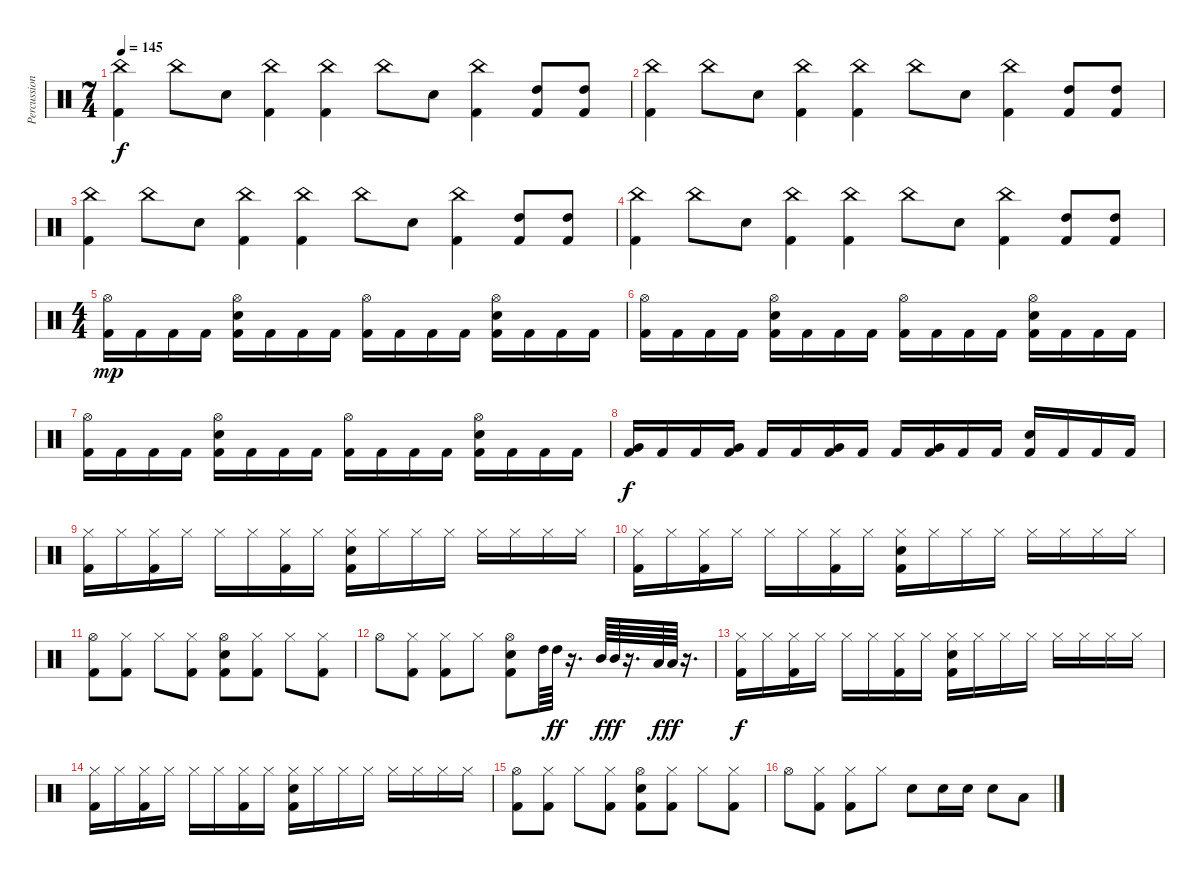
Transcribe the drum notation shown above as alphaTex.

\track ("Percussion" "Percussion") {instrument percussion}
\staff {score}
\articulation defaults
\ts (7 4)
\tempo 145
\clef neutral
\ks c
("China (hit)" "Kick (hit) 2").4{dy f} "China (hit)".8 "Electric Snare (hit)".8 ("China (hit)" "Kick (hit) 2").4 ("China (hit)" "Kick (hit) 2").4 "China (hit)".8 "Electric Snare (hit)".8 ("China (hit)" "Kick (hit) 2").4 ("High Tom (hit)" "Kick (hit) 2").8 ("High Tom (hit)" "Kick (hit) 2").8 |
("China (hit)" "Kick (hit) 2").4 "China (hit)".8 "Electric Snare (hit)".8 ("China (hit)" "Kick (hit) 2").4 ("China (hit)" "Kick (hit) 2").4 "China (hit)".8 "Electric Snare (hit)".8 ("China (hit)" "Kick (hit) 2").4 ("High Tom (hit)" "Kick (hit) 2").8 ("High Tom (hit)" "Kick (hit) 2").8 |
("China (hit)" "Kick (hit) 2").4 "China (hit)".8 "Electric Snare (hit)".8 ("China (hit)" "Kick (hit) 2").4 ("China (hit)" "Kick (hit) 2").4 "China (hit)".8 "Electric Snare (hit)".8 ("China (hit)" "Kick (hit) 2").4 ("High Tom (hit)" "Kick (hit) 2").8 ("High Tom (hit)" "Kick (hit) 2").8 |
("China (hit)" "Kick (hit) 2").4 "China (hit)".8 "Electric Snare (hit)".8 ("China (hit)" "Kick (hit) 2").4 ("China (hit)" "Kick (hit) 2").4 "China (hit)".8 "Electric Snare (hit)".8 ("China (hit)" "Kick (hit) 2").4 ("High Tom (hit)" "Kick (hit) 2").8 ("High Tom (hit)" "Kick (hit) 2").8 |
\ts (4 4)
("Hi-Hat (open)" "Kick (hit) 2").16{dy mp} "Kick (hit) 2".16 "Kick (hit) 2".16 "Kick (hit) 2".16 ("Hi-Hat (open)" "Electric Snare (hit)" "Kick (hit) 2").16 "Kick (hit) 2".16 "Kick (hit) 2".16 "Kick (hit) 2".16 ("Hi-Hat (open)" "Kick (hit) 2").16 "Kick (hit) 2".16 "Kick (hit) 2".16 "Kick (hit) 2".16 ("Hi-Hat (open)" "Electric Snare (hit)" "Kick (hit) 2").16 "Kick (hit) 2".16 "Kick (hit) 2".16 "Kick (hit) 2".16 |
("Hi-Hat (open)" "Kick (hit) 2").16 "Kick (hit) 2".16 "Kick (hit) 2".16 "Kick (hit) 2".16 ("Hi-Hat (open)" "Electric Snare (hit)" "Kick (hit) 2").16 "Kick (hit) 2".16 "Kick (hit) 2".16 "Kick (hit) 2".16 ("Hi-Hat (open)" "Kick (hit) 2").16 "Kick (hit) 2".16 "Kick (hit) 2".16 "Kick (hit) 2".16 ("Hi-Hat (open)" "Electric Snare (hit)" "Kick (hit) 2").16 "Kick (hit) 2".16 "Kick (hit) 2".16 "Kick (hit) 2".16 |
("Hi-Hat (open)" "Kick (hit) 2").16 "Kick (hit) 2".16 "Kick (hit) 2".16 "Kick (hit) 2".16 ("Hi-Hat (open)" "Electric Snare (hit)" "Kick (hit) 2").16 "Kick (hit) 2".16 "Kick (hit) 2".16 "Kick (hit) 2".16 ("Hi-Hat (open)" "Kick (hit) 2").16 "Kick (hit) 2".16 "Kick (hit) 2".16 "Kick (hit) 2".16 ("Hi-Hat (open)" "Electric Snare (hit)" "Kick (hit) 2").16 "Kick (hit) 2".16 "Kick (hit) 2".16 "Kick (hit) 2".16 |
("Very Low Tom (hit)" "Kick (hit) 2").16{dy f} "Kick (hit) 2".16 "Kick (hit) 2".16 ("Very Low Tom (hit)" "Kick (hit) 2").16 "Kick (hit) 2".16 "Kick (hit) 2".16 ("Very Low Tom (hit)" "Kick (hit) 2").16 "Kick (hit) 2".16 "Kick (hit) 2".16 ("Very Low Tom (hit)" "Kick (hit) 2").16 "Kick (hit) 2".16 "Kick (hit) 2".16 ("Electric Snare (hit)" "Kick (hit) 2").16 "Kick (hit) 2".16 "Kick (hit) 2".16 "Kick (hit) 2".16 |
("Hi-Hat (closed)" "Kick (hit) 2").16 "Hi-Hat (closed)".16 ("Hi-Hat (closed)" "Kick (hit) 2").16 "Hi-Hat (closed)".16 "Hi-Hat (closed)".16 "Hi-Hat (closed)".16 ("Hi-Hat (closed)" "Kick (hit) 2").16 "Hi-Hat (closed)".16 ("Hi-Hat (closed)" "Electric Snare (hit)" "Kick (hit) 2").16 "Hi-Hat (closed)".16 "Hi-Hat (closed)".16 "Hi-Hat (closed)".16 "Hi-Hat (closed)".16 "Hi-Hat (closed)".16 "Hi-Hat (closed)".16 "Hi-Hat (closed)".16 |
("Hi-Hat (closed)" "Kick (hit) 2").16 "Hi-Hat (closed)".16 ("Hi-Hat (closed)" "Kick (hit) 2").16 "Hi-Hat (closed)".16 "Hi-Hat (closed)".16 "Hi-Hat (closed)".16 ("Hi-Hat (closed)" "Kick (hit) 2").16 "Hi-Hat (closed)".16 ("Hi-Hat (closed)" "Electric Snare (hit)" "Kick (hit) 2").16 "Hi-Hat (closed)".16 "Hi-Hat (closed)".16 "Hi-Hat (closed)".16 "Hi-Hat (closed)".16 "Hi-Hat (closed)".16 "Hi-Hat (closed)".16 "Hi-Hat (closed)".16 |
("Hi-Hat (open)" "Kick (hit) 2").8 ("Hi-Hat (closed)" "Kick (hit) 2").8 "Hi-Hat (closed)".8 ("Hi-Hat (closed)" "Kick (hit) 2").8 ("Hi-Hat (open)" "Electric Snare (hit)" "Kick (hit) 2").8 ("Hi-Hat (closed)" "Kick (hit) 2").8 "Hi-Hat (closed)".8 ("Hi-Hat (closed)" "Kick (hit) 2").8 |
"Hi-Hat (open)".8 ("Hi-Hat (closed)" "Kick (hit) 2").8 ("Hi-Hat (closed)" "Kick (hit) 2").8 "Hi-Hat (closed)".8 ("Hi-Hat (open)" "Electric Snare (hit)" "Kick (hit) 2").8 "High Tom (hit)".64 "High Tom (hit)".64{dy ff} r.16{d} "Mid Tom (hit)".64{dy f} "Mid Tom (hit)".64{dy ff} r.16{d} "Low Tom (hit)".64{dy f} "Low Tom (hit)".64{dy ff} r.16{d} |
("Hi-Hat (closed)" "Kick (hit) 2").16{dy f} "Hi-Hat (closed)".16 ("Hi-Hat (closed)" "Kick (hit) 2").16 "Hi-Hat (closed)".16 "Hi-Hat (closed)".16 "Hi-Hat (closed)".16 ("Hi-Hat (closed)" "Kick (hit) 2").16 "Hi-Hat (closed)".16 ("Hi-Hat (closed)" "Electric Snare (hit)" "Kick (hit) 2").16 "Hi-Hat (closed)".16 "Hi-Hat (closed)".16 "Hi-Hat (closed)".16 "Hi-Hat (closed)".16 "Hi-Hat (closed)".16 "Hi-Hat (closed)".16 "Hi-Hat (closed)".16 |
("Hi-Hat (closed)" "Kick (hit) 2").16 "Hi-Hat (closed)".16 ("Hi-Hat (closed)" "Kick (hit) 2").16 "Hi-Hat (closed)".16 "Hi-Hat (closed)".16 "Hi-Hat (closed)".16 ("Hi-Hat (closed)" "Kick (hit) 2").16 "Hi-Hat (closed)".16 ("Hi-Hat (closed)" "Electric Snare (hit)" "Kick (hit) 2").16 "Hi-Hat (closed)".16 "Hi-Hat (closed)".16 "Hi-Hat (closed)".16 "Hi-Hat (closed)".16 "Hi-Hat (closed)".16 "Hi-Hat (closed)".16 "Hi-Hat (closed)".16 |
("Hi-Hat (open)" "Kick (hit) 2").8 ("Hi-Hat (closed)" "Kick (hit) 2").8 "Hi-Hat (closed)".8 ("Hi-Hat (closed)" "Kick (hit) 2").8 ("Hi-Hat (open)" "Electric Snare (hit)" "Kick (hit) 2").8 ("Hi-Hat (closed)" "Kick (hit) 2").8 "Hi-Hat (closed)".8 ("Hi-Hat (closed)" "Kick (hit) 2").8 |
"Hi-Hat (open)".8 ("Hi-Hat (closed)" "Kick (hit) 2").8 ("Hi-Hat (closed)" "Kick (hit) 2").8 "Hi-Hat (closed)".8 "Electric Snare (hit)".8 "Electric Snare (hit)".16 "Electric Snare (hit)".16 "Electric Snare (hit)".8 "Low Tom (hit)".8
